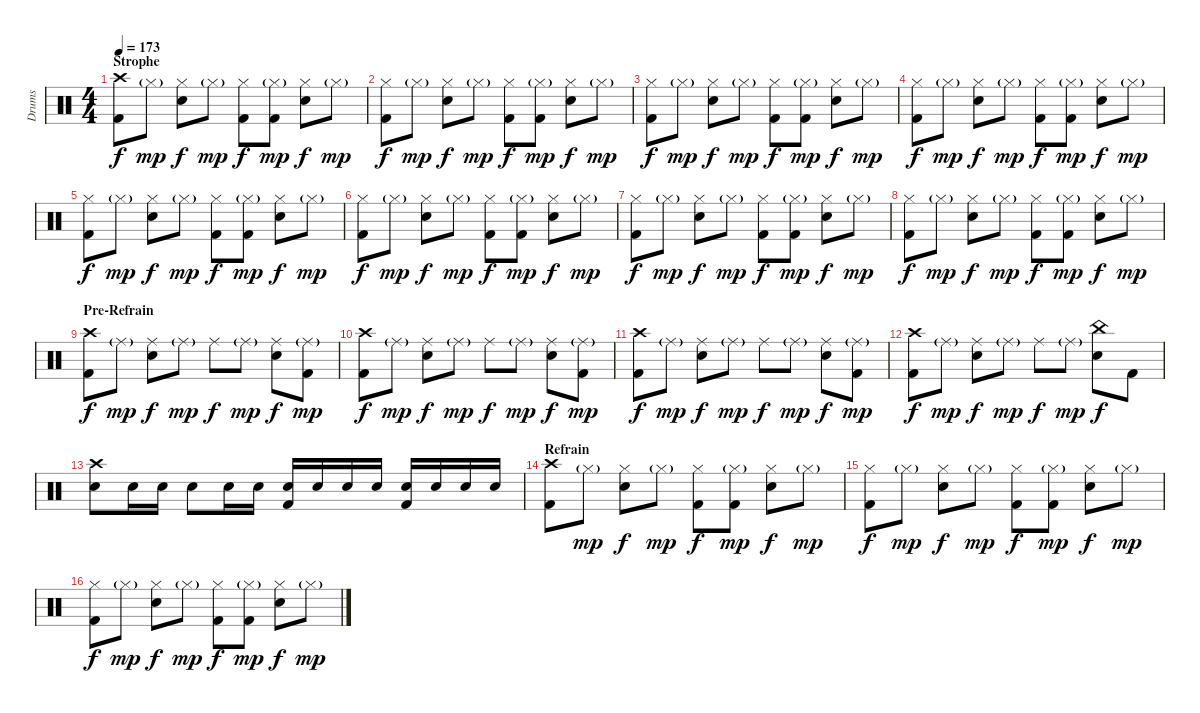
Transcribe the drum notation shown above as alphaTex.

\track ("Drums" "Drums") {instrument percussion}
\staff {score}
\articulation defaults
\ts (4 4)
\section ("" "Strophe")
\tempo 173
\clef neutral
\ks c
("Crash high (hit)" "Kick (hit) 2").8{dy f} "Hi-Hat (closed)"{g}.8{dy mp} ("Hi-Hat (closed)" "Electric Snare (hit)").8{dy f} "Hi-Hat (closed)"{g}.8{dy mp} ("Hi-Hat (closed)" "Kick (hit) 2").8{dy f} ("Hi-Hat (closed)"{g} "Kick (hit) 2").8{dy mp} ("Hi-Hat (closed)" "Electric Snare (hit)").8{dy f} "Hi-Hat (closed)"{g}.8{dy mp} |
("Hi-Hat (closed)" "Kick (hit) 2").8{dy f} "Hi-Hat (closed)"{g}.8{dy mp} ("Hi-Hat (closed)" "Electric Snare (hit)").8{dy f} "Hi-Hat (closed)"{g}.8{dy mp} ("Hi-Hat (closed)" "Kick (hit) 2").8{dy f} ("Hi-Hat (closed)"{g} "Kick (hit) 2").8{dy mp} ("Hi-Hat (closed)" "Electric Snare (hit)").8{dy f} "Hi-Hat (closed)"{g}.8{dy mp} |
("Hi-Hat (closed)" "Kick (hit) 2").8{dy f} "Hi-Hat (closed)"{g}.8{dy mp} ("Hi-Hat (closed)" "Electric Snare (hit)").8{dy f} "Hi-Hat (closed)"{g}.8{dy mp} ("Hi-Hat (closed)" "Kick (hit) 2").8{dy f} ("Hi-Hat (closed)"{g} "Kick (hit) 2").8{dy mp} ("Hi-Hat (closed)" "Electric Snare (hit)").8{dy f} "Hi-Hat (closed)"{g}.8{dy mp} |
("Hi-Hat (closed)" "Kick (hit) 2").8{dy f} "Hi-Hat (closed)"{g}.8{dy mp} ("Hi-Hat (closed)" "Electric Snare (hit)").8{dy f} "Hi-Hat (closed)"{g}.8{dy mp} ("Hi-Hat (closed)" "Kick (hit) 2").8{dy f} ("Hi-Hat (closed)"{g} "Kick (hit) 2").8{dy mp} ("Hi-Hat (closed)" "Electric Snare (hit)").8{dy f} "Hi-Hat (closed)"{g}.8{dy mp} |
("Hi-Hat (closed)" "Kick (hit) 2").8{dy f} "Hi-Hat (closed)"{g}.8{dy mp} ("Hi-Hat (closed)" "Electric Snare (hit)").8{dy f} "Hi-Hat (closed)"{g}.8{dy mp} ("Hi-Hat (closed)" "Kick (hit) 2").8{dy f} ("Hi-Hat (closed)"{g} "Kick (hit) 2").8{dy mp} ("Hi-Hat (closed)" "Electric Snare (hit)").8{dy f} "Hi-Hat (closed)"{g}.8{dy mp} |
("Hi-Hat (closed)" "Kick (hit) 2").8{dy f} "Hi-Hat (closed)"{g}.8{dy mp} ("Hi-Hat (closed)" "Electric Snare (hit)").8{dy f} "Hi-Hat (closed)"{g}.8{dy mp} ("Hi-Hat (closed)" "Kick (hit) 2").8{dy f} ("Hi-Hat (closed)"{g} "Kick (hit) 2").8{dy mp} ("Hi-Hat (closed)" "Electric Snare (hit)").8{dy f} "Hi-Hat (closed)"{g}.8{dy mp} |
("Hi-Hat (closed)" "Kick (hit) 2").8{dy f} "Hi-Hat (closed)"{g}.8{dy mp} ("Hi-Hat (closed)" "Electric Snare (hit)").8{dy f} "Hi-Hat (closed)"{g}.8{dy mp} ("Hi-Hat (closed)" "Kick (hit) 2").8{dy f} ("Hi-Hat (closed)"{g} "Kick (hit) 2").8{dy mp} ("Hi-Hat (closed)" "Electric Snare (hit)").8{dy f} "Hi-Hat (closed)"{g}.8{dy mp} |
("Hi-Hat (closed)" "Kick (hit) 2").8{dy f} "Hi-Hat (closed)"{g}.8{dy mp} ("Hi-Hat (closed)" "Electric Snare (hit)").8{dy f} "Hi-Hat (closed)"{g}.8{dy mp} ("Hi-Hat (closed)" "Kick (hit) 2").8{dy f} ("Hi-Hat (closed)"{g} "Kick (hit) 2").8{dy mp} ("Hi-Hat (closed)" "Electric Snare (hit)").8{dy f} "Hi-Hat (closed)"{g}.8{dy mp} |
\section ("" "Pre-Refrain")
("Crash high (hit)" "Kick (hit) 2").8{dy f} "Ride (middle)"{g}.8{dy mp} ("Ride (middle)" "Electric Snare (hit)").8{dy f} "Ride (middle)"{g}.8{dy mp} "Ride (middle)".8{dy f} "Ride (middle)"{g}.8{dy mp} ("Ride (middle)" "Electric Snare (hit)").8{dy f} ("Ride (middle)"{g} "Kick (hit) 2").8{dy mp} |
("Crash high (hit)" "Kick (hit) 2").8{dy f} "Ride (middle)"{g}.8{dy mp} ("Ride (middle)" "Electric Snare (hit)").8{dy f} "Ride (middle)"{g}.8{dy mp} "Ride (middle)".8{dy f} "Ride (middle)"{g}.8{dy mp} ("Ride (middle)" "Electric Snare (hit)").8{dy f} ("Ride (middle)"{g} "Kick (hit) 2").8{dy mp} |
("Crash high (hit)" "Kick (hit) 2").8{dy f} "Ride (middle)"{g}.8{dy mp} ("Ride (middle)" "Electric Snare (hit)").8{dy f} "Ride (middle)"{g}.8{dy mp} "Ride (middle)".8{dy f} "Ride (middle)"{g}.8{dy mp} ("Ride (middle)" "Electric Snare (hit)").8{dy f} ("Ride (middle)"{g} "Kick (hit) 2").8{dy mp} |
("Crash high (hit)" "Kick (hit) 2").8{dy f} "Ride (middle)"{g}.8{dy mp} ("Ride (middle)" "Electric Snare (hit)").8{dy f} "Ride (middle)"{g}.8{dy mp} "Ride (middle)".8{dy f} "Ride (middle)"{g}.8{dy mp} ("China (hit)" "Electric Snare (hit)").8{dy f} "Kick (hit) 2".8 |
("Crash high (hit)" "Electric Snare (hit)").8 "Electric Snare (hit)".16 "Electric Snare (hit)".16 "Electric Snare (hit)".8 "Electric Snare (hit)".16 "Electric Snare (hit)".16 ("Electric Snare (hit)" "Kick (hit) 2").16 "Electric Snare (hit)".16 "Electric Snare (hit)".16 "Electric Snare (hit)".16 ("Electric Snare (hit)" "Kick (hit) 2").16 "Electric Snare (hit)".16 "Electric Snare (hit)".16 "Electric Snare (hit)".16 |
\section ("" "Refrain")
("Crash high (hit)" "Kick (hit) 2").8 "Hi-Hat (closed)"{g}.8{dy mp} ("Hi-Hat (closed)" "Electric Snare (hit)").8{dy f} "Hi-Hat (closed)"{g}.8{dy mp} ("Hi-Hat (closed)" "Kick (hit) 2").8{dy f} ("Hi-Hat (closed)"{g} "Kick (hit) 2").8{dy mp} ("Hi-Hat (closed)" "Electric Snare (hit)").8{dy f} "Hi-Hat (closed)"{g}.8{dy mp} |
("Hi-Hat (closed)" "Kick (hit) 2").8{dy f} "Hi-Hat (closed)"{g}.8{dy mp} ("Hi-Hat (closed)" "Electric Snare (hit)").8{dy f} "Hi-Hat (closed)"{g}.8{dy mp} ("Hi-Hat (closed)" "Kick (hit) 2").8{dy f} ("Hi-Hat (closed)"{g} "Kick (hit) 2").8{dy mp} ("Hi-Hat (closed)" "Electric Snare (hit)").8{dy f} "Hi-Hat (closed)"{g}.8{dy mp} |
("Hi-Hat (closed)" "Kick (hit) 2").8{dy f} "Hi-Hat (closed)"{g}.8{dy mp} ("Hi-Hat (closed)" "Electric Snare (hit)").8{dy f} "Hi-Hat (closed)"{g}.8{dy mp} ("Hi-Hat (closed)" "Kick (hit) 2").8{dy f} ("Hi-Hat (closed)"{g} "Kick (hit) 2").8{dy mp} ("Hi-Hat (closed)" "Electric Snare (hit)").8{dy f} "Hi-Hat (closed)"{g}.8{dy mp}
